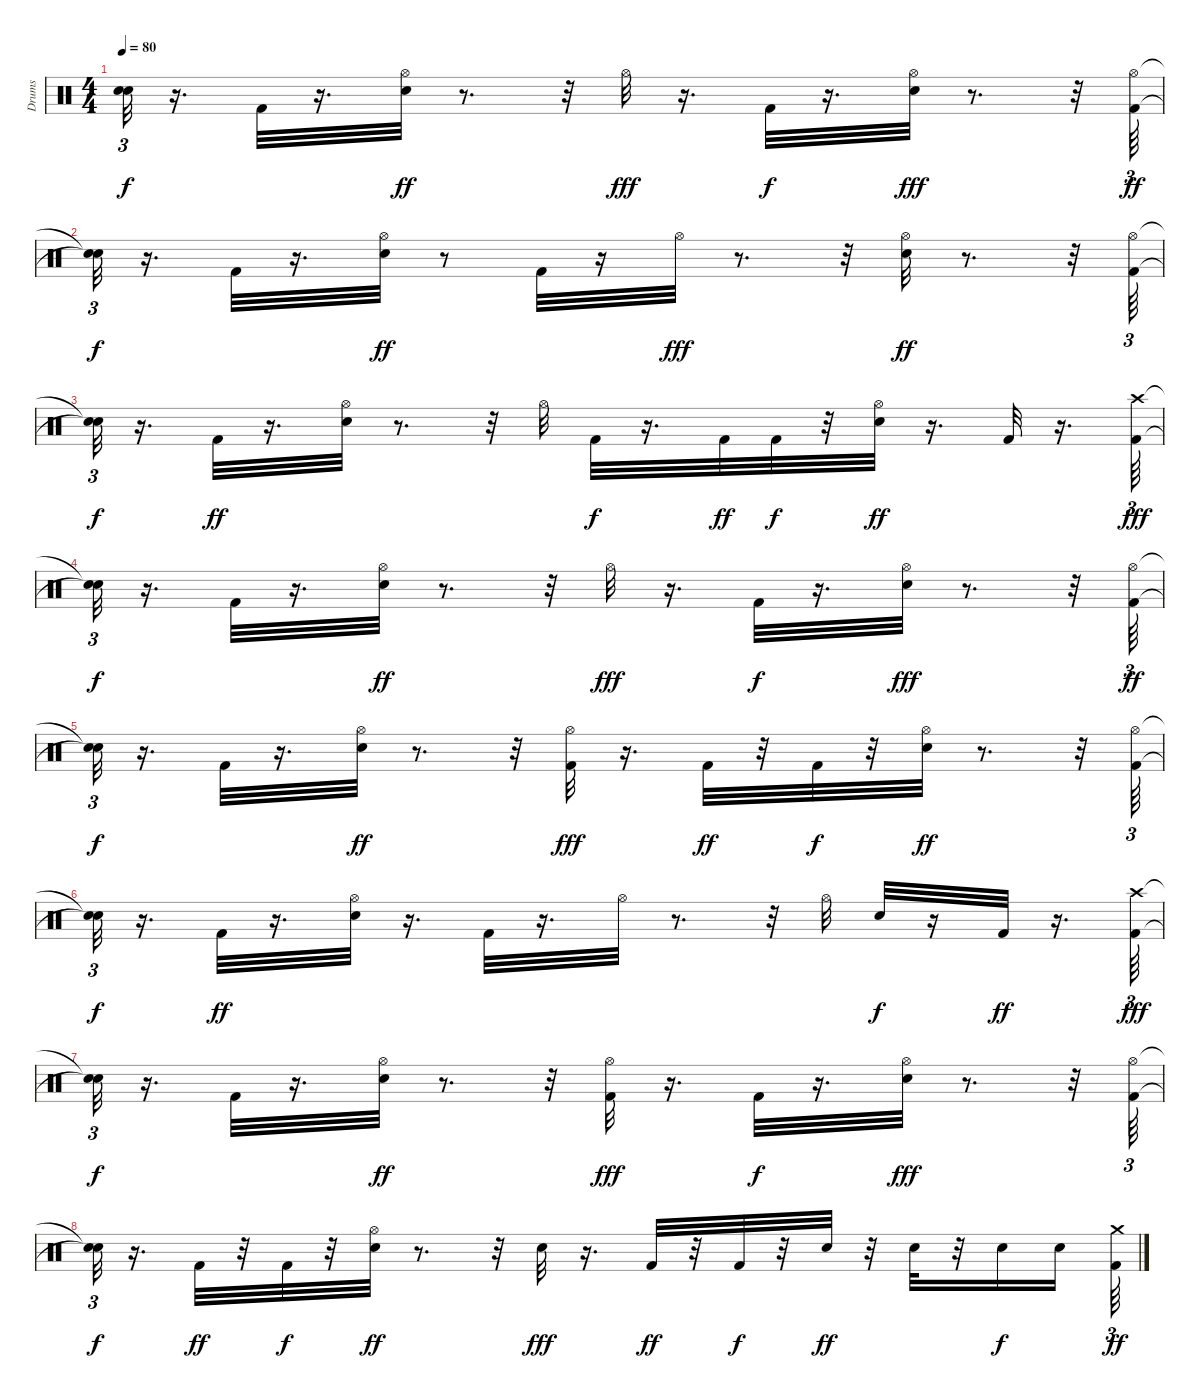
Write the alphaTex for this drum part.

\track ("Drums" "Drums") {instrument percussion}
\staff {score}
\articulation defaults
\ts (4 4)
\tempo 80
\clef neutral
\ks c
("Snare (hit)"{t} "Snare (hit)"{t}).32{tu (3 2) dy f} r.16{d} "Kick (hit) 2".32 r.16{d} ("Electric Snare (hit)" "Hi-Hat (open)").32{dy ff} r.8{d} r.32 "Hi-Hat (open)".32{dy fff} r.16{d} "Kick (hit) 2".32{dy f} r.16{d} ("Electric Snare (hit)" "Hi-Hat (open)").32{dy fff} r.8{d} r.32 ("Hi-Hat (open)" "Kick (hit) 2").64{tu (3 2) dy ff} |
("Snare (hit)"{t} "Snare (hit)"{t}).32{tu (3 2) dy f} r.16{d} "Kick (hit) 2".32 r.16{d} ("Electric Snare (hit)" "Hi-Hat (open)").32{dy ff} r.8 "Kick (hit) 2".32 r.16 "Hi-Hat (open)".32{dy fff} r.8{d} r.32 ("Hi-Hat (open)" "Electric Snare (hit)").32{dy ff} r.8{d} r.32 ("Hi-Hat (open)" "Kick (hit) 2").64{tu (3 2)} |
("Snare (hit)"{t} "Snare (hit)"{t}).32{tu (3 2) dy f} r.16{d} "Kick (hit) 2".32{dy ff} r.16{d} ("Hi-Hat (open)" "Electric Snare (hit)").32 r.8{d} r.32 "Hi-Hat (open)".32 "Kick (hit) 2".32{dy f} r.16{d} "Kick (hit) 2".32{dy ff} "Kick (hit) 2".32{dy f} r.32 ("Hi-Hat (open)" "Electric Snare (hit)").32{dy ff} r.16{d} "Kick (hit) 2".32 r.16{d} ("Crash high (hit)" "Kick (hit) 2").64{tu (3 2) dy fff} |
("Snare (hit)"{t} "Snare (hit)"{t}).32{tu (3 2) dy f} r.16{d} "Kick (hit) 2".32 r.16{d} ("Electric Snare (hit)" "Hi-Hat (open)").32{dy ff} r.8{d} r.32 "Hi-Hat (open)".32{dy fff} r.16{d} "Kick (hit) 2".32{dy f} r.16{d} ("Electric Snare (hit)" "Hi-Hat (open)").32{dy fff} r.8{d} r.32 ("Hi-Hat (open)" "Kick (hit) 2").64{tu (3 2) dy ff} |
("Snare (hit)"{t} "Snare (hit)"{t}).32{tu (3 2) dy f} r.16{d} "Kick (hit) 2".32 r.16{d} ("Electric Snare (hit)" "Hi-Hat (open)").32{dy ff} r.8{d} r.32 ("Kick (hit) 2" "Hi-Hat (open)").32{dy fff} r.16{d} "Kick (hit) 2".32{dy ff} r.32 "Kick (hit) 2".32{dy f} r.32 ("Hi-Hat (open)" "Electric Snare (hit)").32{dy ff} r.8{d} r.32 ("Hi-Hat (open)" "Kick (hit) 2").64{tu (3 2)} |
("Snare (hit)"{t} "Snare (hit)"{t}).32{tu (3 2) dy f} r.16{d} "Kick (hit) 2".32{dy ff} r.16{d} ("Hi-Hat (open)" "Electric Snare (hit)").32 r.16{d} "Kick (hit) 2".32 r.16{d} "Hi-Hat (open)".32 r.8{d} r.32 "Hi-Hat (open)".32 "Electric Snare (hit)".32{dy f} r.16 "Kick (hit) 2".32{dy ff} r.16{d} ("Crash high (hit)" "Kick (hit) 2").64{tu (3 2) dy fff} |
("Snare (hit)"{t} "Snare (hit)"{t}).32{tu (3 2) dy f} r.16{d} "Kick (hit) 2".32 r.16{d} ("Electric Snare (hit)" "Hi-Hat (open)").32{dy ff} r.8{d} r.32 ("Kick (hit) 2" "Hi-Hat (open)").32{dy fff} r.16{d} "Kick (hit) 2".32{dy f} r.16{d} ("Electric Snare (hit)" "Hi-Hat (open)").32{dy fff} r.8{d} r.32 ("Hi-Hat (open)" "Kick (hit) 2").64{tu (3 2)} |
("Snare (hit)"{t} "Snare (hit)"{t}).32{tu (3 2) dy f} r.16{d} "Kick (hit) 2".32{dy ff} r.32 "Kick (hit) 2".32{dy f} r.32 ("Electric Snare (hit)" "Hi-Hat (open)").32{dy ff} r.8{d} r.32 "Electric Snare (hit)".32{dy fff} r.16{d} "Kick (hit) 2".32{dy ff} r.32 "Kick (hit) 2".32{dy f} r.32 "Electric Snare (hit)".32{dy ff} r.32 "Electric Snare (hit)".32 r.32 "Electric Snare (hit)".16{dy f} "Electric Snare (hit)".16{beam splitsecondary} ("Crash medium (hit)" "Kick (hit) 2").64{tu (3 2) dy ff}
